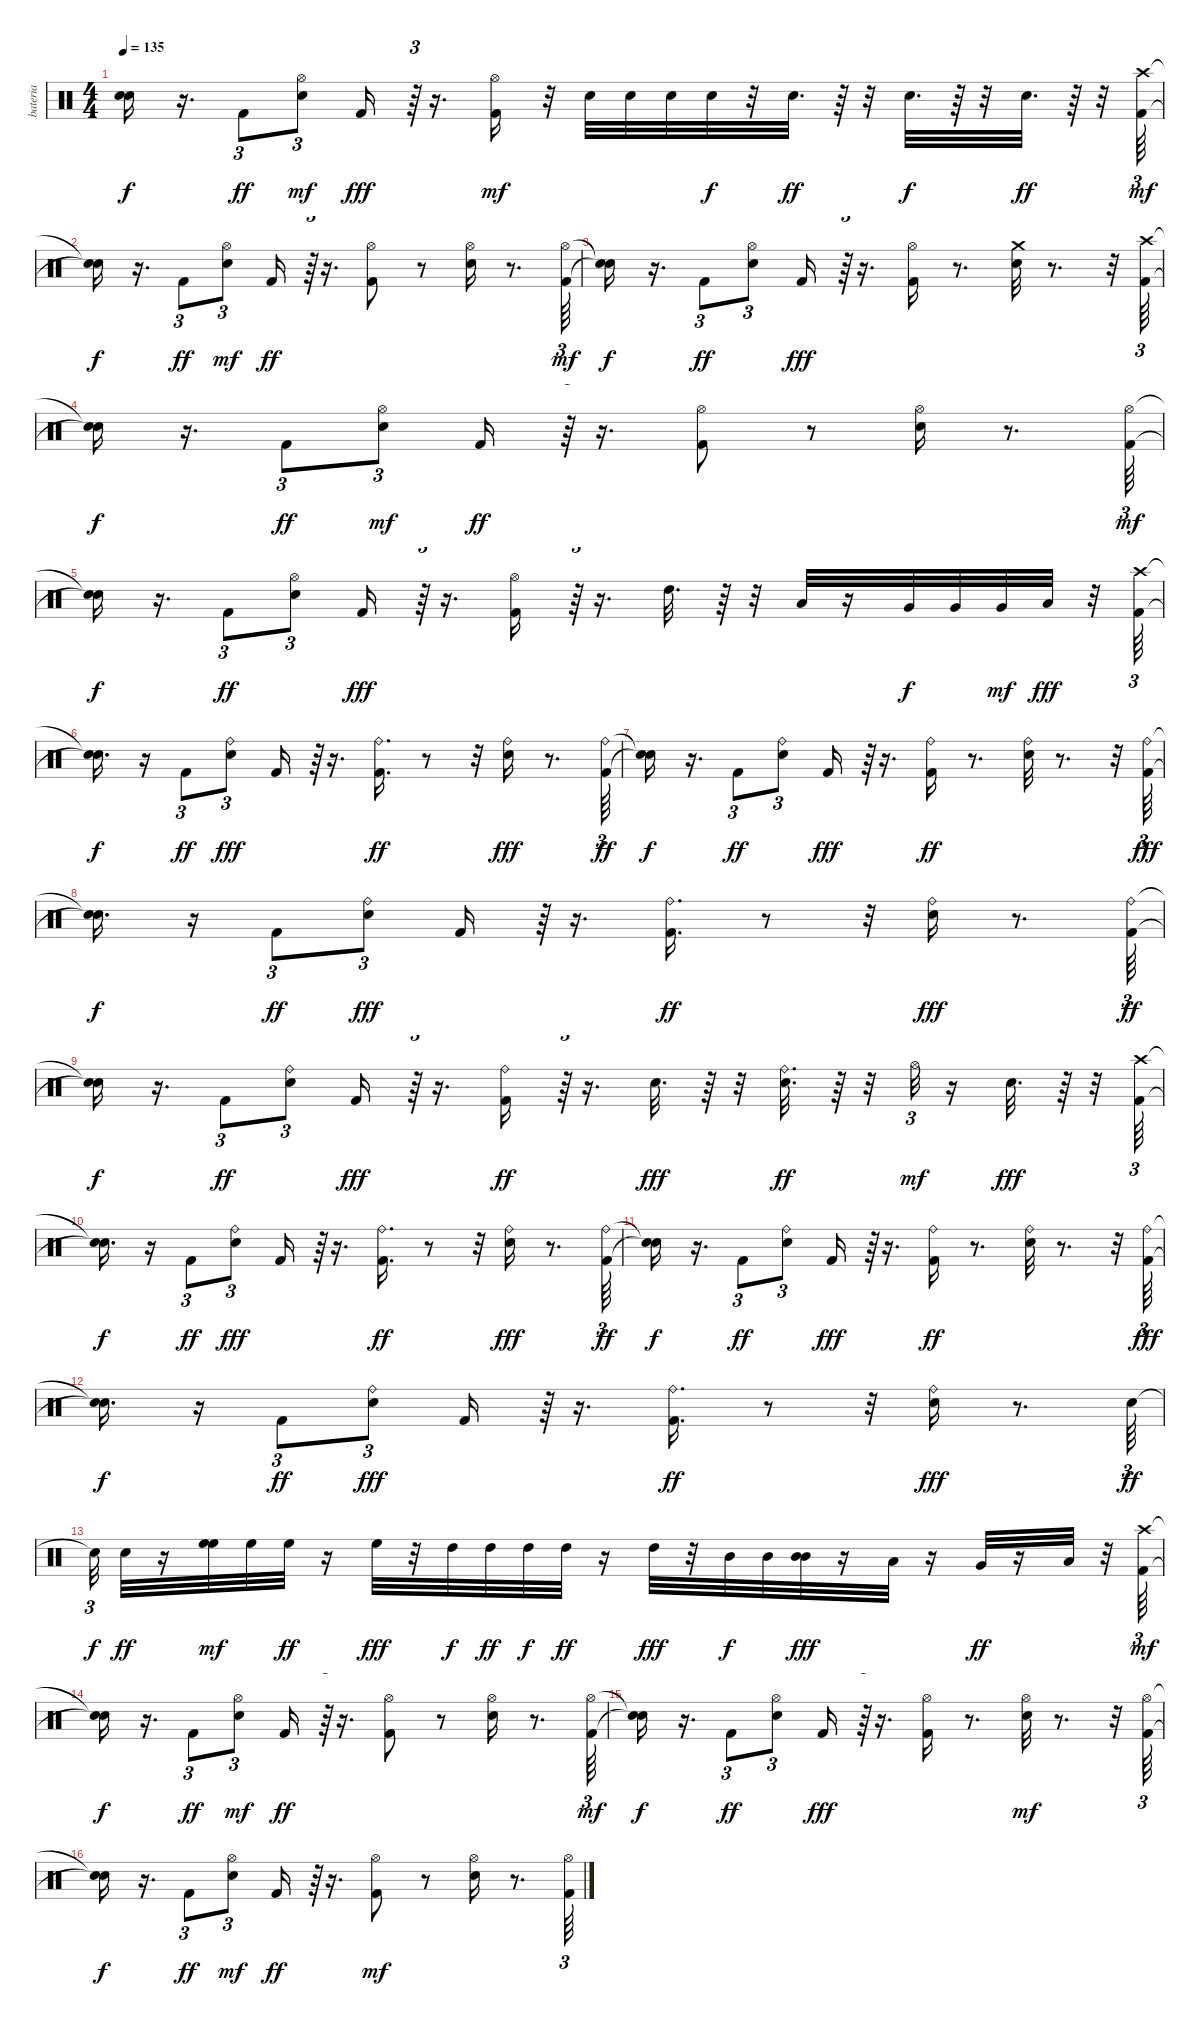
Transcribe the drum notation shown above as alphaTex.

\track ("bateria" "bateria") {instrument percussion}
\staff {score}
\articulation defaults
\ts (4 4)
\tempo 135
\clef neutral
\ks c
("Snare (hit)"{t} "Snare (hit)"{t}).16{dy f} r.16{d} "Kick (hit) 2".8{tu (3 2) dy ff} ("Electric Snare (hit)" "Hi-Hat (open)").8{tu (3 2) dy mf} "Kick (hit) 2".16{dy fff} r.64{tu (3 2)} r.16{d} ("Kick (hit) 2" "Hi-Hat (open)").16{dy mf} r.32 "Electric Snare (hit)".32 "Electric Snare (hit)".32 "Electric Snare (hit)".32 "Electric Snare (hit)".32{dy f} r.32 "Electric Snare (hit)".32{d dy ff} r.64 r.32 "Electric Snare (hit)".32{d dy f} r.64 r.32 "Electric Snare (hit)".32{d dy ff} r.64 r.32 ("Kick (hit) 2" "Crash high (hit)").64{tu (3 2) dy mf} |
("Snare (hit)"{t} "Snare (hit)"{t}).16{dy f} r.16{d} "Kick (hit) 2".8{tu (3 2) dy ff} ("Hi-Hat (open)" "Electric Snare (hit)").8{tu (3 2) dy mf} "Kick (hit) 2".16{dy ff} r.64{tu (3 2)} r.16{d} ("Hi-Hat (open)" "Kick (hit) 2").8 r.8 ("Hi-Hat (open)" "Electric Snare (hit)").16 r.8{d} ("Kick (hit) 2" "Hi-Hat (open)").64{tu (3 2) dy mf} |
("Snare (hit)"{t} "Snare (hit)"{t}).16{dy f} r.16{d} "Kick (hit) 2".8{tu (3 2) dy ff} ("Hi-Hat (open)" "Electric Snare (hit)").8{tu (3 2)} "Kick (hit) 2".16{dy fff} r.64{tu (3 2)} r.16{d} ("Hi-Hat (open)" "Kick (hit) 2").16 r.8{d} ("Crash medium (hit)" "Electric Snare (hit)").32 r.8{d} r.32 ("Crash high (hit)" "Kick (hit) 2").64{tu (3 2)} |
("Snare (hit)"{t} "Snare (hit)"{t}).16{dy f} r.16{d} "Kick (hit) 2".8{tu (3 2) dy ff} ("Hi-Hat (open)" "Electric Snare (hit)").8{tu (3 2) dy mf} "Kick (hit) 2".16{dy ff} r.64{tu (3 2)} r.16{d} ("Hi-Hat (open)" "Kick (hit) 2").8 r.8 ("Hi-Hat (open)" "Electric Snare (hit)").16 r.8{d} ("Kick (hit) 2" "Hi-Hat (open)").64{tu (3 2) dy mf} |
("Snare (hit)"{t} "Snare (hit)"{t}).16{dy f} r.16{d} "Kick (hit) 2".8{tu (3 2) dy ff} ("Hi-Hat (open)" "Electric Snare (hit)").8{tu (3 2)} "Kick (hit) 2".16{dy fff} r.64{tu (3 2)} r.16{d} ("Hi-Hat (open)" "Kick (hit) 2").16 r.64{tu (3 2)} r.16{d} "High Tom (hit)".32{d} r.64 r.32 "Low Tom (hit)".32 r.16 "Very Low Tom (hit)".32{dy f} "Very Low Tom (hit)".32 "Very Low Tom (hit)".32{dy mf} "Low Floor Tom (hit)".32{dy fff} r.32 ("Crash high (hit)" "Kick (hit) 2").64{tu (3 2)} |
("Snare (hit)"{t} "Snare (hit)"{t}).16{d dy f} r.16 "Kick (hit) 2".8{tu (3 2) dy ff} ("Electric Snare (hit)" "Ride (bell)").8{tu (3 2) dy fff} "Kick (hit) 2".16 r.64{tu (3 2)} r.16{d} ("Kick (hit) 2" "Ride (bell)").16{d dy ff} r.8 r.32 ("Electric Snare (hit)" "Ride (bell)").16{dy fff} r.8{d} ("Kick (hit) 2" "Ride (bell)").64{tu (3 2) dy ff} |
("Snare (hit)"{t} "Snare (hit)"{t}).16{dy f} r.16{d} "Kick (hit) 2".8{tu (3 2) dy ff} ("Electric Snare (hit)" "Ride (bell)").8{tu (3 2)} "Kick (hit) 2".16{dy fff} r.64{tu (3 2)} r.16{d} ("Kick (hit) 2" "Ride (bell)").16{dy ff} r.8{d} ("Electric Snare (hit)" "Ride (bell)").32 r.8{d} r.32 ("Ride (bell)" "Kick (hit) 2").64{tu (3 2) dy fff} |
("Snare (hit)"{t} "Snare (hit)"{t}).16{d dy f} r.16 "Kick (hit) 2".8{tu (3 2) dy ff} ("Electric Snare (hit)" "Ride (bell)").8{tu (3 2) dy fff} "Kick (hit) 2".16 r.64{tu (3 2)} r.16{d} ("Kick (hit) 2" "Ride (bell)").16{d dy ff} r.8 r.32 ("Electric Snare (hit)" "Ride (bell)").16{dy fff} r.8{d} ("Kick (hit) 2" "Ride (bell)").64{tu (3 2) dy ff} |
("Snare (hit)"{t} "Snare (hit)"{t}).16{dy f} r.16{d} "Kick (hit) 2".8{tu (3 2) dy ff} ("Electric Snare (hit)" "Ride (bell)").8{tu (3 2)} "Kick (hit) 2".16{dy fff} r.64{tu (3 2)} r.16{d} ("Kick (hit) 2" "Ride (bell)").16{dy ff} r.64{tu (3 2)} r.16{d} "Electric Snare (hit)".32{d dy fff} r.64 r.32 ("Electric Snare (hit)" "Ride (bell)").32{d dy ff} r.64 r.32 "Hi-Hat (open)".32{tu (3 2) dy mf} r.16 "Electric Snare (hit)".32{d dy fff} r.64 r.32 ("Crash high (hit)" "Kick (hit) 2").64{tu (3 2)} |
("Snare (hit)"{t} "Snare (hit)"{t}).16{d dy f} r.16 "Kick (hit) 2".8{tu (3 2) dy ff} ("Electric Snare (hit)" "Ride (bell)").8{tu (3 2) dy fff} "Kick (hit) 2".16 r.64{tu (3 2)} r.16{d} ("Kick (hit) 2" "Ride (bell)").16{d dy ff} r.8 r.32 ("Electric Snare (hit)" "Ride (bell)").16{dy fff} r.8{d} ("Kick (hit) 2" "Ride (bell)").64{tu (3 2) dy ff} |
("Snare (hit)"{t} "Snare (hit)"{t}).16{dy f} r.16{d} "Kick (hit) 2".8{tu (3 2) dy ff} ("Electric Snare (hit)" "Ride (bell)").8{tu (3 2)} "Kick (hit) 2".16{dy fff} r.64{tu (3 2)} r.16{d} ("Kick (hit) 2" "Ride (bell)").16{dy ff} r.8{d} ("Electric Snare (hit)" "Ride (bell)").32 r.8{d} r.32 ("Ride (bell)" "Kick (hit) 2").64{tu (3 2) dy fff} |
("Snare (hit)"{t} "Snare (hit)"{t}).16{d dy f} r.16 "Kick (hit) 2".8{tu (3 2) dy ff} ("Electric Snare (hit)" "Ride (bell)").8{tu (3 2) dy fff} "Kick (hit) 2".16 r.64{tu (3 2)} r.16{d} ("Kick (hit) 2" "Ride (bell)").16{d dy ff} r.8 r.32 ("Electric Snare (hit)" "Ride (bell)").16{dy fff} r.8{d} "Electric Snare (hit)".64{tu (3 2) dy ff} |
"Snare (hit)"{t}.32{tu (3 2) dy f} "Electric Snare (hit)".32{dy ff} r.16 ("High Floor Tom (hit)" "High Floor Tom (hit)").32{dy mf} "High Floor Tom (hit)".32 "High Floor Tom (hit)".32{dy ff} r.16 "High Floor Tom (hit)".32{dy fff} r.32 "High Tom (hit)".32{dy f} "High Tom (hit)".32{dy ff} "High Tom (hit)".32{dy f} "High Tom (hit)".32{dy ff} r.16 "High Tom (hit)".32{dy fff} r.32 "Mid Tom (hit)".32{dy f} "Mid Tom (hit)".32 ("Mid Tom (hit)" "Mid Tom (hit)").32{dy fff} r.16 "Low Tom (hit)".32 r.16 "Very Low Tom (hit)".32{dy ff} r.16 "Low Floor Tom (hit)".32 r.32 ("Kick (hit) 2" "Crash high (hit)").64{tu (3 2) dy mf} |
("Snare (hit)"{t} "Snare (hit)"{t}).16{dy f} r.16{d} "Kick (hit) 2".8{tu (3 2) dy ff} ("Hi-Hat (open)" "Electric Snare (hit)").8{tu (3 2) dy mf} "Kick (hit) 2".16{dy ff} r.64{tu (3 2)} r.16{d} ("Hi-Hat (open)" "Kick (hit) 2").8 r.8 ("Hi-Hat (open)" "Electric Snare (hit)").16 r.8{d} ("Kick (hit) 2" "Hi-Hat (open)").64{tu (3 2) dy mf} |
("Snare (hit)"{t} "Snare (hit)"{t}).16{dy f} r.16{d} "Kick (hit) 2".8{tu (3 2) dy ff} ("Hi-Hat (open)" "Electric Snare (hit)").8{tu (3 2)} "Kick (hit) 2".16{dy fff} r.64{tu (3 2)} r.16{d} ("Hi-Hat (open)" "Kick (hit) 2").16 r.8{d} ("Electric Snare (hit)" "Hi-Hat (open)").32{dy mf} r.8{d} r.32 ("Kick (hit) 2" "Hi-Hat (open)").64{tu (3 2)} |
("Snare (hit)"{t} "Snare (hit)"{t}).16{dy f} r.16{d} "Kick (hit) 2".8{tu (3 2) dy ff} ("Electric Snare (hit)" "Hi-Hat (open)").8{tu (3 2) dy mf} "Kick (hit) 2".16{dy ff} r.64{tu (3 2)} r.16{d} ("Kick (hit) 2" "Hi-Hat (open)").8{dy mf} r.8 ("Electric Snare (hit)" "Hi-Hat (open)").16 r.8{d} ("Kick (hit) 2" "Hi-Hat (open)").64{tu (3 2)}
